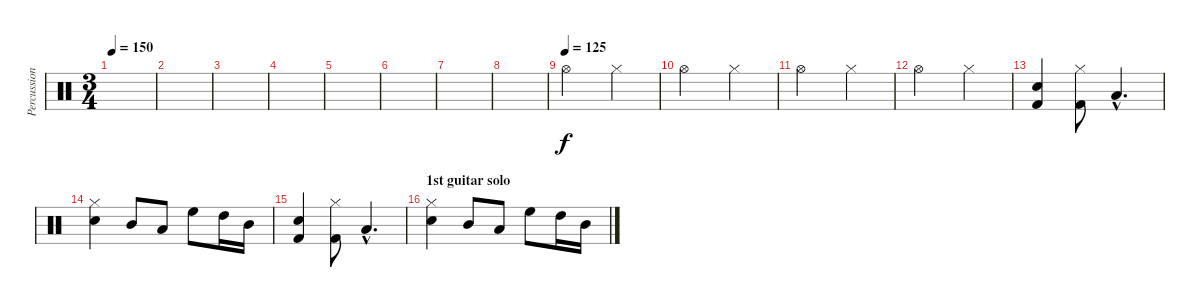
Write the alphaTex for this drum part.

\track ("Percussion" "Percussion") {instrument percussion}
\staff {score}
\articulation defaults
\ts (3 4)
\tempo 150
\tempo 125
\tempo 130
\tempo 150
\clef neutral
\ks c
|
|
|
|
|
|
|
|
\tempo (125)
"Hi-Hat (open)".2 "Hi-Hat (closed)".4 |
"Hi-Hat (open)".2 "Hi-Hat (closed)".4 |
"Hi-Hat (open)".2 "Hi-Hat (closed)".4 |
"Hi-Hat (open)".2 "Hi-Hat (closed)".4 |
("Kick (hit) 2" "Snare (hit) 2").4 ("Kick (hit) 2" "Hi-Hat (closed)").8 "Low Tom (hit)"{hac}.4{d} |
("Snare (hit) 2" "Hi-Hat (closed)").4 "Mid Tom (hit)".8 "Low Tom (hit)".8 "High Floor Tom (hit)".8 "High Tom (hit)".16 "Mid Tom (hit)".16 |
("Kick (hit) 2" "Snare (hit) 2").4 ("Kick (hit) 2" "Hi-Hat (closed)").8 "Low Tom (hit)"{hac}.4{d} |
\section ("" "1st guitar solo")
("Snare (hit) 2" "Hi-Hat (closed)").4 "Mid Tom (hit)".8 "Low Tom (hit)".8 "High Floor Tom (hit)".8 "High Tom (hit)".16 "Mid Tom (hit)".16
